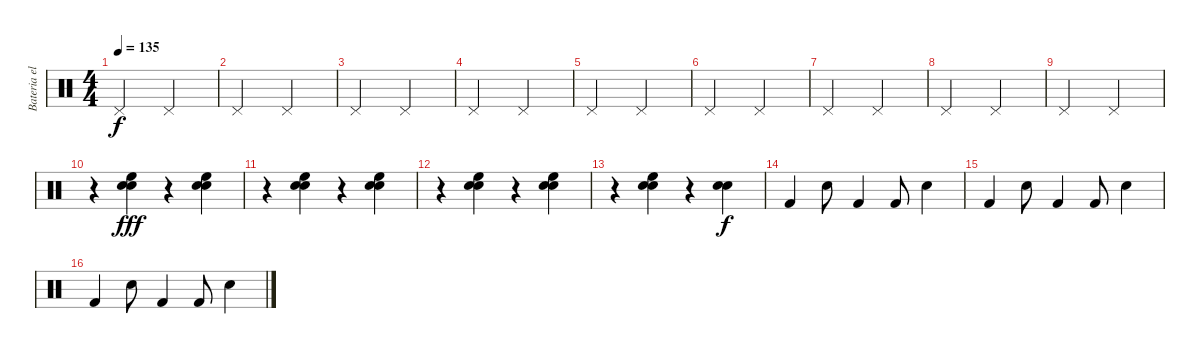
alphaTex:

\track ("Bateria electrica" "Bateria el") {instrument percussion}
\staff {score}
\articulation defaults
\ts (4 4)
\tempo 135
\clef neutral
\ks c "Pedal Hi-Hat (hit)".2{dy f} "Pedal Hi-Hat (hit)".2
|
"Pedal Hi-Hat (hit)".2 "Pedal Hi-Hat (hit)".2 |
"Pedal Hi-Hat (hit)".2 "Pedal Hi-Hat (hit)".2 |
"Pedal Hi-Hat (hit)".2 "Pedal Hi-Hat (hit)".2 |
"Pedal Hi-Hat (hit)".2 "Pedal Hi-Hat (hit)".2 |
"Pedal Hi-Hat (hit)".2 "Pedal Hi-Hat (hit)".2 |
"Pedal Hi-Hat (hit)".2 "Pedal Hi-Hat (hit)".2 |
"Pedal Hi-Hat (hit)".2 "Pedal Hi-Hat (hit)".2 |
"Pedal Hi-Hat (hit)".2 "Pedal Hi-Hat (hit)".2 |
r.4 ("Electric Snare (hit)" "High Floor Tom (hit)" "Electric Snare (hit)").4{dy fff} r.4 ("Electric Snare (hit)" "High Floor Tom (hit)" "Electric Snare (hit)").4 |
r.4 ("Electric Snare (hit)" "High Floor Tom (hit)" "Electric Snare (hit)").4 r.4 ("Electric Snare (hit)" "High Floor Tom (hit)" "Electric Snare (hit)").4 |
r.4 ("Electric Snare (hit)" "High Floor Tom (hit)" "Electric Snare (hit)").4 r.4 ("Electric Snare (hit)" "High Floor Tom (hit)" "Electric Snare (hit)").4 |
r.4 ("Electric Snare (hit)" "High Floor Tom (hit)" "Electric Snare (hit)").4 r.4 ("Electric Snare (hit)" "Snare (hit) 2").4{dy f} |
"Kick (hit) 2".4 "Snare (hit) 2".8 "Kick (hit) 2".4 "Kick (hit) 2".8 "Snare (hit) 2".4 |
"Kick (hit) 2".4 "Snare (hit) 2".8 "Kick (hit) 2".4 "Kick (hit) 2".8 "Snare (hit) 2".4 |
"Kick (hit) 2".4 "Snare (hit) 2".8 "Kick (hit) 2".4 "Kick (hit) 2".8 "Snare (hit) 2".4
